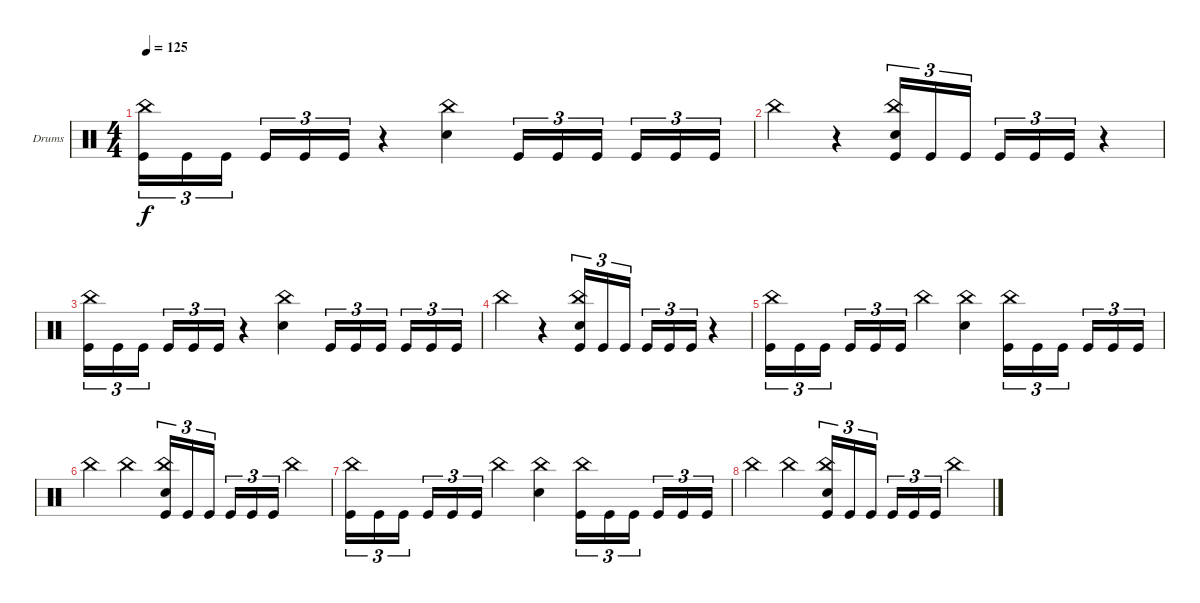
\defaultSystemsLayout 4
\bracketExtendMode groupsimilarinstruments
\firstSystemTrackNameOrientation horizontal
\otherSystemsTrackNameOrientation horizontal
\track ("Drumkit" "Drums") {instrument percussion}
\staff {score}
\articulation defaults
\ts (4 4)
\tempo 125
\clef neutral
\ks c
("Kick (hit)" "China (hit)").16{tu (3 2) dy f} "Kick (hit)".16{tu (3 2)} "Kick (hit)".16{tu (3 2)} "Kick (hit)".16{tu (3 2)} "Kick (hit)".16{tu (3 2)} "Kick (hit)".16{tu (3 2)} r.4 ("China (hit)" "Snare (hit) 2").4 "Kick (hit)".16{tu (3 2)} "Kick (hit)".16{tu (3 2)} "Kick (hit)".16{tu (3 2)} "Kick (hit)".16{tu (3 2)} "Kick (hit)".16{tu (3 2)} "Kick (hit)".16{tu (3 2)} |
"China (hit)".4 r.4 ("Kick (hit)" "China (hit)" "Snare (hit) 2").16{tu (3 2)} "Kick (hit)".16{tu (3 2)} "Kick (hit)".16{tu (3 2)} "Kick (hit)".16{tu (3 2)} "Kick (hit)".16{tu (3 2)} "Kick (hit)".16{tu (3 2)} r.4 |
("Kick (hit)" "China (hit)").16{tu (3 2)} "Kick (hit)".16{tu (3 2)} "Kick (hit)".16{tu (3 2)} "Kick (hit)".16{tu (3 2)} "Kick (hit)".16{tu (3 2)} "Kick (hit)".16{tu (3 2)} r.4 ("China (hit)" "Snare (hit) 2").4 "Kick (hit)".16{tu (3 2)} "Kick (hit)".16{tu (3 2)} "Kick (hit)".16{tu (3 2)} "Kick (hit)".16{tu (3 2)} "Kick (hit)".16{tu (3 2)} "Kick (hit)".16{tu (3 2)} |
"China (hit)".4 r.4 ("Kick (hit)" "China (hit)" "Snare (hit) 2").16{tu (3 2)} "Kick (hit)".16{tu (3 2)} "Kick (hit)".16{tu (3 2)} "Kick (hit)".16{tu (3 2)} "Kick (hit)".16{tu (3 2)} "Kick (hit)".16{tu (3 2)} r.4 |
("Kick (hit)" "China (hit)").16{tu (3 2)} "Kick (hit)".16{tu (3 2)} "Kick (hit)".16{tu (3 2)} "Kick (hit)".16{tu (3 2)} "Kick (hit)".16{tu (3 2)} "Kick (hit)".16{tu (3 2)} "China (hit)".4 ("China (hit)" "Snare (hit) 2").4 ("Kick (hit)" "China (hit)").16{tu (3 2)} "Kick (hit)".16{tu (3 2)} "Kick (hit)".16{tu (3 2)} "Kick (hit)".16{tu (3 2)} "Kick (hit)".16{tu (3 2)} "Kick (hit)".16{tu (3 2)} |
"China (hit)".4 "China (hit)".4 ("Kick (hit)" "China (hit)" "Snare (hit) 2").16{tu (3 2)} "Kick (hit)".16{tu (3 2)} "Kick (hit)".16{tu (3 2)} "Kick (hit)".16{tu (3 2)} "Kick (hit)".16{tu (3 2)} "Kick (hit)".16{tu (3 2)} "China (hit)".4 |
("Kick (hit)" "China (hit)").16{tu (3 2)} "Kick (hit)".16{tu (3 2)} "Kick (hit)".16{tu (3 2)} "Kick (hit)".16{tu (3 2)} "Kick (hit)".16{tu (3 2)} "Kick (hit)".16{tu (3 2)} "China (hit)".4 ("China (hit)" "Snare (hit) 2").4 ("Kick (hit)" "China (hit)").16{tu (3 2)} "Kick (hit)".16{tu (3 2)} "Kick (hit)".16{tu (3 2)} "Kick (hit)".16{tu (3 2)} "Kick (hit)".16{tu (3 2)} "Kick (hit)".16{tu (3 2)} |
"China (hit)".4 "China (hit)".4 ("Kick (hit)" "China (hit)" "Snare (hit) 2").16{tu (3 2)} "Kick (hit)".16{tu (3 2)} "Kick (hit)".16{tu (3 2)} "Kick (hit)".16{tu (3 2)} "Kick (hit)".16{tu (3 2)} "Kick (hit)".16{tu (3 2)} "China (hit)".4
